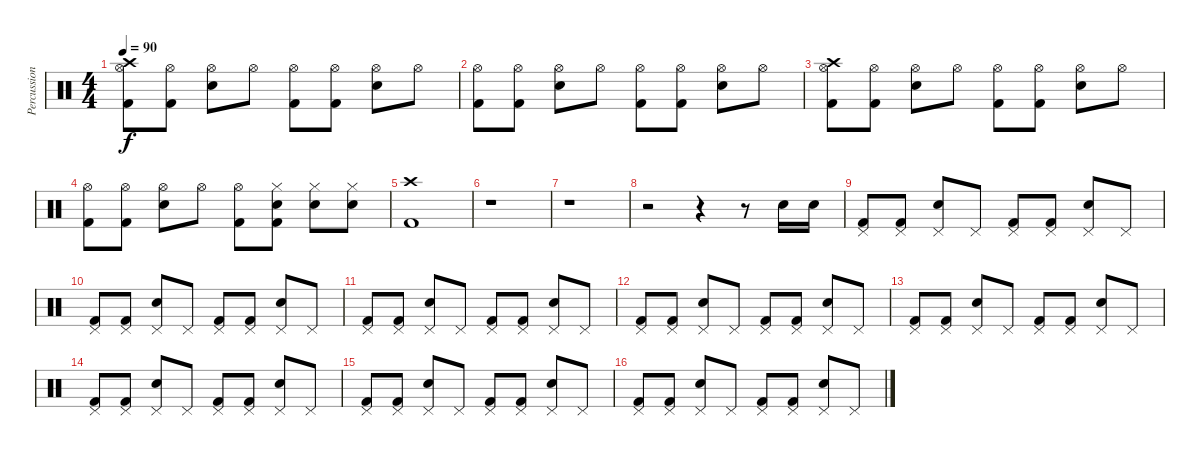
\track ("Percussion" "Percussion") {instrument percussion}
\staff {score}
\articulation defaults
\ts (4 4)
\tempo 90
\clef neutral
\ks c
("Hi-Hat (open)" "Kick (hit) 2" "Crash high (hit)").8{dy f} ("Hi-Hat (open)" "Kick (hit) 2").8 ("Hi-Hat (open)" "Electric Snare (hit)").8 "Hi-Hat (open)".8 ("Hi-Hat (open)" "Kick (hit) 2").8 ("Hi-Hat (open)" "Kick (hit) 2").8 ("Hi-Hat (open)" "Electric Snare (hit)").8 "Hi-Hat (open)".8 |
("Hi-Hat (open)" "Kick (hit) 2").8 ("Hi-Hat (open)" "Kick (hit) 2").8 ("Hi-Hat (open)" "Electric Snare (hit)").8 "Hi-Hat (open)".8 ("Hi-Hat (open)" "Kick (hit) 2").8 ("Hi-Hat (open)" "Kick (hit) 2").8 ("Hi-Hat (open)" "Electric Snare (hit)").8 "Hi-Hat (open)".8 |
("Hi-Hat (open)" "Kick (hit) 2" "Crash high (hit)").8 ("Hi-Hat (open)" "Kick (hit) 2").8 ("Hi-Hat (open)" "Electric Snare (hit)").8 "Hi-Hat (open)".8 ("Hi-Hat (open)" "Kick (hit) 2").8 ("Hi-Hat (open)" "Kick (hit) 2").8 ("Hi-Hat (open)" "Electric Snare (hit)").8 "Hi-Hat (open)".8 |
("Hi-Hat (open)" "Kick (hit) 2").8 ("Hi-Hat (open)" "Kick (hit) 2").8 ("Hi-Hat (open)" "Electric Snare (hit)").8 "Hi-Hat (open)".8 ("Hi-Hat (open)" "Kick (hit) 2").8 ("Electric Snare (hit)" "Kick (hit) 2" "Hi-Hat (closed)").8 ("Electric Snare (hit)" "Hi-Hat (closed)").8 ("Electric Snare (hit)" "Hi-Hat (closed)").8 |
("Crash high (hit)" "Kick (hit) 2").1 |
r.1 |
r.1 |
r.2 r.4 r.8 "Electric Snare (hit)".16 "Electric Snare (hit)".16 |
("Pedal Hi-Hat (hit)" "Kick (hit) 2").8 ("Pedal Hi-Hat (hit)" "Kick (hit) 2").8 ("Pedal Hi-Hat (hit)" "Electric Snare (hit)").8 "Pedal Hi-Hat (hit)".8 ("Pedal Hi-Hat (hit)" "Kick (hit) 2").8 ("Pedal Hi-Hat (hit)" "Kick (hit) 2").8 ("Pedal Hi-Hat (hit)" "Electric Snare (hit)").8 "Pedal Hi-Hat (hit)".8 |
("Pedal Hi-Hat (hit)" "Kick (hit) 2").8 ("Pedal Hi-Hat (hit)" "Kick (hit) 2").8 ("Pedal Hi-Hat (hit)" "Electric Snare (hit)").8 "Pedal Hi-Hat (hit)".8 ("Pedal Hi-Hat (hit)" "Kick (hit) 2").8 ("Pedal Hi-Hat (hit)" "Kick (hit) 2").8 ("Pedal Hi-Hat (hit)" "Electric Snare (hit)").8 "Pedal Hi-Hat (hit)".8 |
("Pedal Hi-Hat (hit)" "Kick (hit) 2").8 ("Pedal Hi-Hat (hit)" "Kick (hit) 2").8 ("Pedal Hi-Hat (hit)" "Electric Snare (hit)").8 "Pedal Hi-Hat (hit)".8 ("Pedal Hi-Hat (hit)" "Kick (hit) 2").8 ("Pedal Hi-Hat (hit)" "Kick (hit) 2").8 ("Pedal Hi-Hat (hit)" "Electric Snare (hit)").8 "Pedal Hi-Hat (hit)".8 |
("Pedal Hi-Hat (hit)" "Kick (hit) 2").8 ("Pedal Hi-Hat (hit)" "Kick (hit) 2").8 ("Pedal Hi-Hat (hit)" "Electric Snare (hit)").8 "Pedal Hi-Hat (hit)".8 ("Pedal Hi-Hat (hit)" "Kick (hit) 2").8 ("Pedal Hi-Hat (hit)" "Kick (hit) 2").8 ("Pedal Hi-Hat (hit)" "Electric Snare (hit)").8 "Pedal Hi-Hat (hit)".8 |
("Pedal Hi-Hat (hit)" "Kick (hit) 2").8 ("Pedal Hi-Hat (hit)" "Kick (hit) 2").8 ("Pedal Hi-Hat (hit)" "Electric Snare (hit)").8 "Pedal Hi-Hat (hit)".8 ("Pedal Hi-Hat (hit)" "Kick (hit) 2").8 ("Pedal Hi-Hat (hit)" "Kick (hit) 2").8 ("Pedal Hi-Hat (hit)" "Electric Snare (hit)").8 "Pedal Hi-Hat (hit)".8 |
("Pedal Hi-Hat (hit)" "Kick (hit) 2").8 ("Pedal Hi-Hat (hit)" "Kick (hit) 2").8 ("Pedal Hi-Hat (hit)" "Electric Snare (hit)").8 "Pedal Hi-Hat (hit)".8 ("Pedal Hi-Hat (hit)" "Kick (hit) 2").8 ("Pedal Hi-Hat (hit)" "Kick (hit) 2").8 ("Pedal Hi-Hat (hit)" "Electric Snare (hit)").8 "Pedal Hi-Hat (hit)".8 |
("Pedal Hi-Hat (hit)" "Kick (hit) 2").8 ("Pedal Hi-Hat (hit)" "Kick (hit) 2").8 ("Pedal Hi-Hat (hit)" "Electric Snare (hit)").8 "Pedal Hi-Hat (hit)".8 ("Pedal Hi-Hat (hit)" "Kick (hit) 2").8 ("Pedal Hi-Hat (hit)" "Kick (hit) 2").8 ("Pedal Hi-Hat (hit)" "Electric Snare (hit)").8 "Pedal Hi-Hat (hit)".8 |
("Pedal Hi-Hat (hit)" "Kick (hit) 2").8 ("Pedal Hi-Hat (hit)" "Kick (hit) 2").8 ("Pedal Hi-Hat (hit)" "Electric Snare (hit)").8 "Pedal Hi-Hat (hit)".8 ("Pedal Hi-Hat (hit)" "Kick (hit) 2").8 ("Pedal Hi-Hat (hit)" "Kick (hit) 2").8 ("Pedal Hi-Hat (hit)" "Electric Snare (hit)").8 "Pedal Hi-Hat (hit)".8
